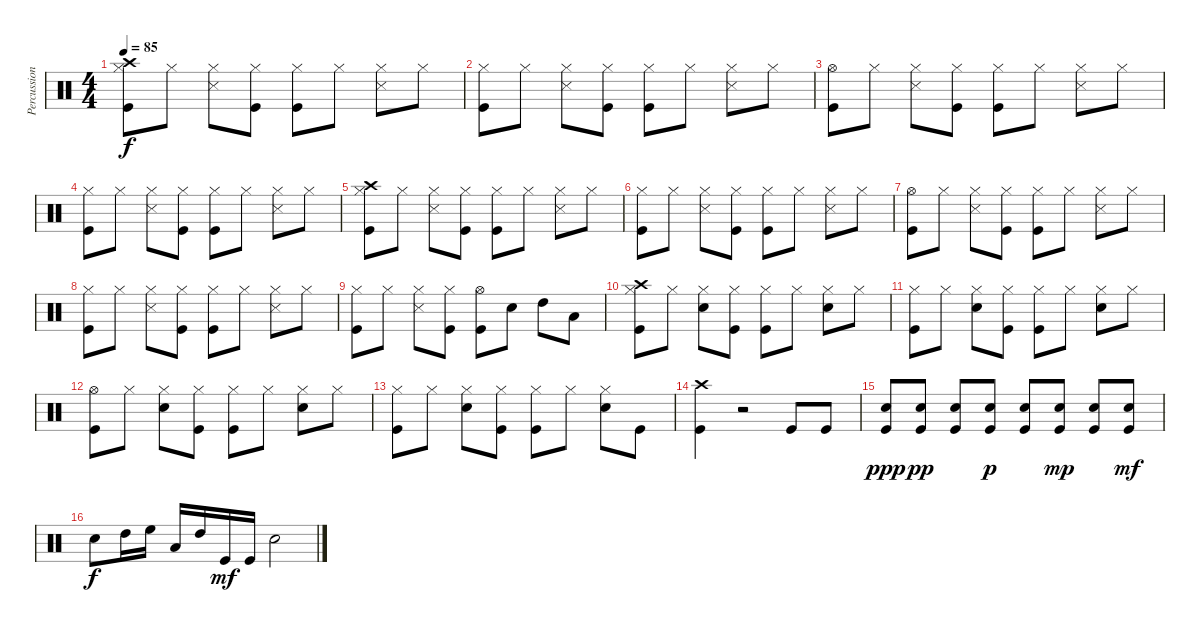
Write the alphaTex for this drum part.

\track ("Percussion" "Percussion") {instrument percussion}
\staff {score}
\articulation defaults
\ts (4 4)
\tempo 85
\clef neutral
\ks c
("Crash high (hit)" "Hi-Hat (closed)" "Kick (hit)").8{dy f} "Hi-Hat (closed)".8 ("Hi-Hat (closed)" "Snare (side stick) 3").8 ("Hi-Hat (closed)" "Kick (hit)").8 ("Hi-Hat (closed)" "Kick (hit)").8 "Hi-Hat (closed)".8 ("Hi-Hat (closed)" "Snare (side stick) 3").8 "Hi-Hat (closed)".8 |
("Hi-Hat (closed)" "Kick (hit)").8 "Hi-Hat (closed)".8 ("Hi-Hat (closed)" "Snare (side stick) 3").8 ("Hi-Hat (closed)" "Kick (hit)").8 ("Hi-Hat (closed)" "Kick (hit)").8 "Hi-Hat (closed)".8 ("Hi-Hat (closed)" "Snare (side stick) 3").8 "Hi-Hat (closed)".8 |
("Hi-Hat (open)" "Kick (hit)").8 "Hi-Hat (closed)".8 ("Hi-Hat (closed)" "Snare (side stick) 3").8 ("Hi-Hat (closed)" "Kick (hit)").8 ("Hi-Hat (closed)" "Kick (hit)").8 "Hi-Hat (closed)".8 ("Hi-Hat (closed)" "Snare (side stick) 3").8 "Hi-Hat (closed)".8 |
("Hi-Hat (closed)" "Kick (hit)").8 "Hi-Hat (closed)".8 ("Hi-Hat (closed)" "Snare (side stick) 3").8 ("Hi-Hat (closed)" "Kick (hit)").8 ("Hi-Hat (closed)" "Kick (hit)").8 "Hi-Hat (closed)".8 ("Hi-Hat (closed)" "Snare (side stick) 3").8 "Hi-Hat (closed)".8 |
("Crash high (hit)" "Hi-Hat (closed)" "Kick (hit)").8 "Hi-Hat (closed)".8 ("Hi-Hat (closed)" "Snare (side stick) 3").8 ("Hi-Hat (closed)" "Kick (hit)").8 ("Hi-Hat (closed)" "Kick (hit)").8 "Hi-Hat (closed)".8 ("Hi-Hat (closed)" "Snare (side stick) 3").8 "Hi-Hat (closed)".8 |
("Hi-Hat (closed)" "Kick (hit)").8 "Hi-Hat (closed)".8 ("Hi-Hat (closed)" "Snare (side stick) 3").8 ("Hi-Hat (closed)" "Kick (hit)").8 ("Hi-Hat (closed)" "Kick (hit)").8 "Hi-Hat (closed)".8 ("Hi-Hat (closed)" "Snare (side stick) 3").8 "Hi-Hat (closed)".8 |
("Hi-Hat (open)" "Kick (hit)").8 "Hi-Hat (closed)".8 ("Hi-Hat (closed)" "Snare (side stick) 3").8 ("Hi-Hat (closed)" "Kick (hit)").8 ("Hi-Hat (closed)" "Kick (hit)").8 "Hi-Hat (closed)".8 ("Hi-Hat (closed)" "Snare (side stick) 3").8 "Hi-Hat (closed)".8 |
("Hi-Hat (closed)" "Kick (hit)").8 "Hi-Hat (closed)".8 ("Hi-Hat (closed)" "Snare (side stick) 3").8 ("Hi-Hat (closed)" "Kick (hit)").8 ("Hi-Hat (closed)" "Kick (hit)").8 "Hi-Hat (closed)".8 ("Hi-Hat (closed)" "Snare (side stick) 3").8 "Hi-Hat (closed)".8 |
("Hi-Hat (closed)" "Kick (hit)").8 "Hi-Hat (closed)".8 ("Hi-Hat (closed)" "Snare (side stick) 3").8 ("Hi-Hat (closed)" "Kick (hit)").8 ("Hi-Hat (open)" "Kick (hit)").8 "Snare (hit) 2".8 "High Tom (hit)".8 "Low Tom (hit)".8 |
("Crash high (hit)" "Hi-Hat (closed)" "Kick (hit)").8 "Hi-Hat (closed)".8 ("Hi-Hat (closed)" "Snare (hit) 2").8 ("Hi-Hat (closed)" "Kick (hit)").8 ("Hi-Hat (closed)" "Kick (hit)").8 "Hi-Hat (closed)".8 ("Hi-Hat (closed)" "Snare (hit) 2").8 "Hi-Hat (closed)".8 |
("Hi-Hat (closed)" "Kick (hit)").8 "Hi-Hat (closed)".8 ("Hi-Hat (closed)" "Snare (hit) 2").8 ("Hi-Hat (closed)" "Kick (hit)").8 ("Hi-Hat (closed)" "Kick (hit)").8 "Hi-Hat (closed)".8 ("Hi-Hat (closed)" "Snare (hit) 2").8 "Hi-Hat (closed)".8 |
("Hi-Hat (open)" "Kick (hit)").8 "Hi-Hat (closed)".8 ("Hi-Hat (closed)" "Snare (hit) 2").8 ("Hi-Hat (closed)" "Kick (hit)").8 ("Hi-Hat (closed)" "Kick (hit)").8 "Hi-Hat (closed)".8 ("Hi-Hat (closed)" "Snare (hit) 2").8 "Hi-Hat (closed)".8 |
("Hi-Hat (closed)" "Kick (hit)").8 "Hi-Hat (closed)".8 ("Hi-Hat (closed)" "Snare (hit) 2").8 ("Hi-Hat (closed)" "Kick (hit)").8 ("Hi-Hat (closed)" "Kick (hit)").8 "Hi-Hat (closed)".8 ("Hi-Hat (closed)" "Snare (hit) 2").8 "Kick (hit)".8 |
("Crash high (hit)" "Kick (hit)").4 r.2 "Kick (hit)".8 "Kick (hit)".8 |
("Snare (hit) 2" "Kick (hit)").8{dy ppp} ("Snare (hit) 2" "Kick (hit)").8{dy pp} ("Snare (hit) 2" "Kick (hit)").8 ("Snare (hit) 2" "Kick (hit)").8{dy p} ("Snare (hit) 2" "Kick (hit)").8 ("Snare (hit) 2" "Kick (hit)").8{dy mp} ("Snare (hit) 2" "Kick (hit)").8 ("Snare (hit) 2" "Kick (hit)").8{dy mf} |
"Snare (hit) 2".8{dy f} "High Tom (hit)".16 "High Floor Tom (hit)".16 "Low Tom (hit)".16 "High Tom (hit)".16 "Kick (hit)".16{dy mf} "Kick (hit)".16 "Snare (hit) 2".2
